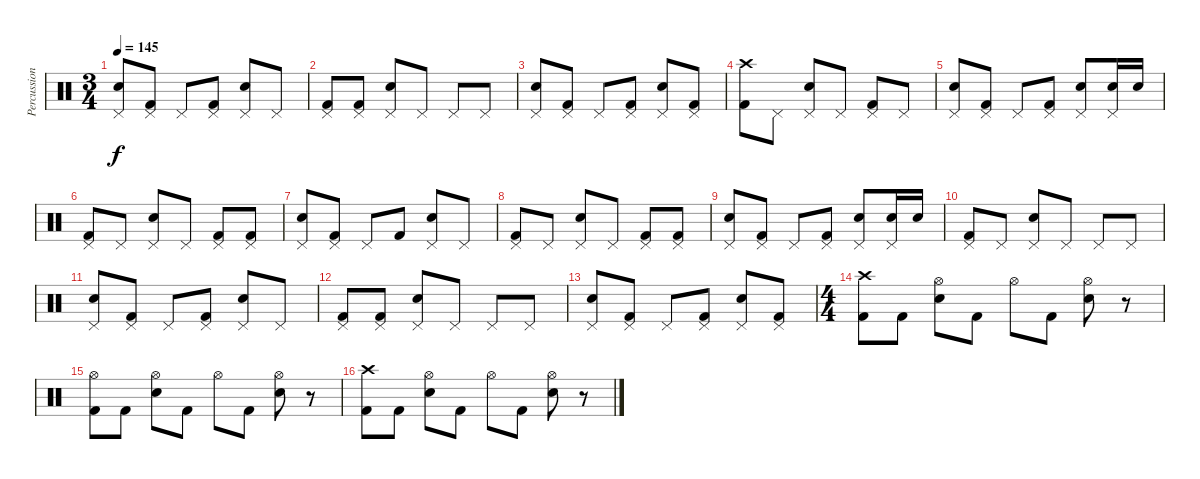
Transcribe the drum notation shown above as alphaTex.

\track ("Percussion" "Percussion") {instrument percussion}
\staff {score}
\articulation defaults
\ts (3 4)
\tempo 145
\clef neutral
\ks c
("Pedal Hi-Hat (hit)" "Electric Snare (hit)").8{dy f} ("Kick (hit) 2" "Pedal Hi-Hat (hit)").8 "Pedal Hi-Hat (hit)".8 ("Pedal Hi-Hat (hit)" "Kick (hit) 2").8 ("Pedal Hi-Hat (hit)" "Electric Snare (hit)").8 "Pedal Hi-Hat (hit)".8 |
("Kick (hit) 2" "Pedal Hi-Hat (hit)").8 ("Pedal Hi-Hat (hit)" "Kick (hit) 2").8 ("Pedal Hi-Hat (hit)" "Electric Snare (hit)").8 "Pedal Hi-Hat (hit)".8 "Pedal Hi-Hat (hit)".8 "Pedal Hi-Hat (hit)".8 |
("Pedal Hi-Hat (hit)" "Electric Snare (hit)").8 ("Pedal Hi-Hat (hit)" "Kick (hit) 2").8 "Pedal Hi-Hat (hit)".8 ("Pedal Hi-Hat (hit)" "Kick (hit) 2").8 ("Electric Snare (hit)" "Pedal Hi-Hat (hit)").8 ("Pedal Hi-Hat (hit)" "Kick (hit) 2").8 |
("Crash high (hit)" "Kick (hit) 2").8 "Pedal Hi-Hat (hit)".8 ("Pedal Hi-Hat (hit)" "Electric Snare (hit)").8 "Pedal Hi-Hat (hit)".8 ("Pedal Hi-Hat (hit)" "Kick (hit) 2").8 "Pedal Hi-Hat (hit)".8 |
("Pedal Hi-Hat (hit)" "Electric Snare (hit)").8 ("Pedal Hi-Hat (hit)" "Kick (hit) 2").8 "Pedal Hi-Hat (hit)".8 ("Pedal Hi-Hat (hit)" "Kick (hit) 2").8 ("Electric Snare (hit)" "Pedal Hi-Hat (hit)").8 ("Pedal Hi-Hat (hit)" "Electric Snare (hit)").16 "Electric Snare (hit)".16 |
("Pedal Hi-Hat (hit)" "Kick (hit) 2").8 "Pedal Hi-Hat (hit)".8 ("Pedal Hi-Hat (hit)" "Electric Snare (hit)").8 "Pedal Hi-Hat (hit)".8 ("Pedal Hi-Hat (hit)" "Kick (hit) 2").8 ("Pedal Hi-Hat (hit)" "Kick (hit) 2").8 |
("Pedal Hi-Hat (hit)" "Electric Snare (hit)").8 ("Pedal Hi-Hat (hit)" "Kick (hit) 2").8 "Pedal Hi-Hat (hit)".8 "Kick (hit) 2".8 ("Pedal Hi-Hat (hit)" "Electric Snare (hit)").8 "Pedal Hi-Hat (hit)".8 |
("Pedal Hi-Hat (hit)" "Kick (hit) 2").8 "Pedal Hi-Hat (hit)".8 ("Pedal Hi-Hat (hit)" "Electric Snare (hit)").8 "Pedal Hi-Hat (hit)".8 ("Pedal Hi-Hat (hit)" "Kick (hit) 2").8 ("Pedal Hi-Hat (hit)" "Kick (hit) 2").8 |
("Pedal Hi-Hat (hit)" "Electric Snare (hit)").8 ("Pedal Hi-Hat (hit)" "Kick (hit) 2").8 "Pedal Hi-Hat (hit)".8 ("Pedal Hi-Hat (hit)" "Kick (hit) 2").8 ("Electric Snare (hit)" "Pedal Hi-Hat (hit)").8 ("Pedal Hi-Hat (hit)" "Electric Snare (hit)").16 "Electric Snare (hit)".16 |
("Pedal Hi-Hat (hit)" "Kick (hit) 2").8 "Pedal Hi-Hat (hit)".8 ("Pedal Hi-Hat (hit)" "Electric Snare (hit)").8 "Pedal Hi-Hat (hit)".8 "Pedal Hi-Hat (hit)".8 "Pedal Hi-Hat (hit)".8 |
("Pedal Hi-Hat (hit)" "Electric Snare (hit)").8 ("Kick (hit) 2" "Pedal Hi-Hat (hit)").8 "Pedal Hi-Hat (hit)".8 ("Pedal Hi-Hat (hit)" "Kick (hit) 2").8 ("Pedal Hi-Hat (hit)" "Electric Snare (hit)").8 "Pedal Hi-Hat (hit)".8 |
("Kick (hit) 2" "Pedal Hi-Hat (hit)").8 ("Pedal Hi-Hat (hit)" "Kick (hit) 2").8 ("Pedal Hi-Hat (hit)" "Electric Snare (hit)").8 "Pedal Hi-Hat (hit)".8 "Pedal Hi-Hat (hit)".8 "Pedal Hi-Hat (hit)".8 |
("Pedal Hi-Hat (hit)" "Electric Snare (hit)").8 ("Pedal Hi-Hat (hit)" "Kick (hit) 2").8 "Pedal Hi-Hat (hit)".8 ("Pedal Hi-Hat (hit)" "Kick (hit) 2").8 ("Electric Snare (hit)" "Pedal Hi-Hat (hit)").8 ("Pedal Hi-Hat (hit)" "Kick (hit) 2").8 |
\ts (4 4)
("Crash high (hit)" "Kick (hit) 2").8 "Kick (hit) 2".8 ("Electric Snare (hit)" "Hi-Hat (open)").8 "Kick (hit) 2".8 "Hi-Hat (open)".8 "Kick (hit) 2".8 ("Hi-Hat (open)" "Electric Snare (hit)").8 r.8 |
("Hi-Hat (open)" "Kick (hit) 2").8 "Kick (hit) 2".8 ("Hi-Hat (open)" "Electric Snare (hit)").8 "Kick (hit) 2".8 "Hi-Hat (open)".8 "Kick (hit) 2".8 ("Hi-Hat (open)" "Electric Snare (hit)").8 r.8 |
("Crash high (hit)" "Kick (hit) 2").8 "Kick (hit) 2".8 ("Electric Snare (hit)" "Hi-Hat (open)").8 "Kick (hit) 2".8 "Hi-Hat (open)".8 "Kick (hit) 2".8 ("Hi-Hat (open)" "Electric Snare (hit)").8 r.8
